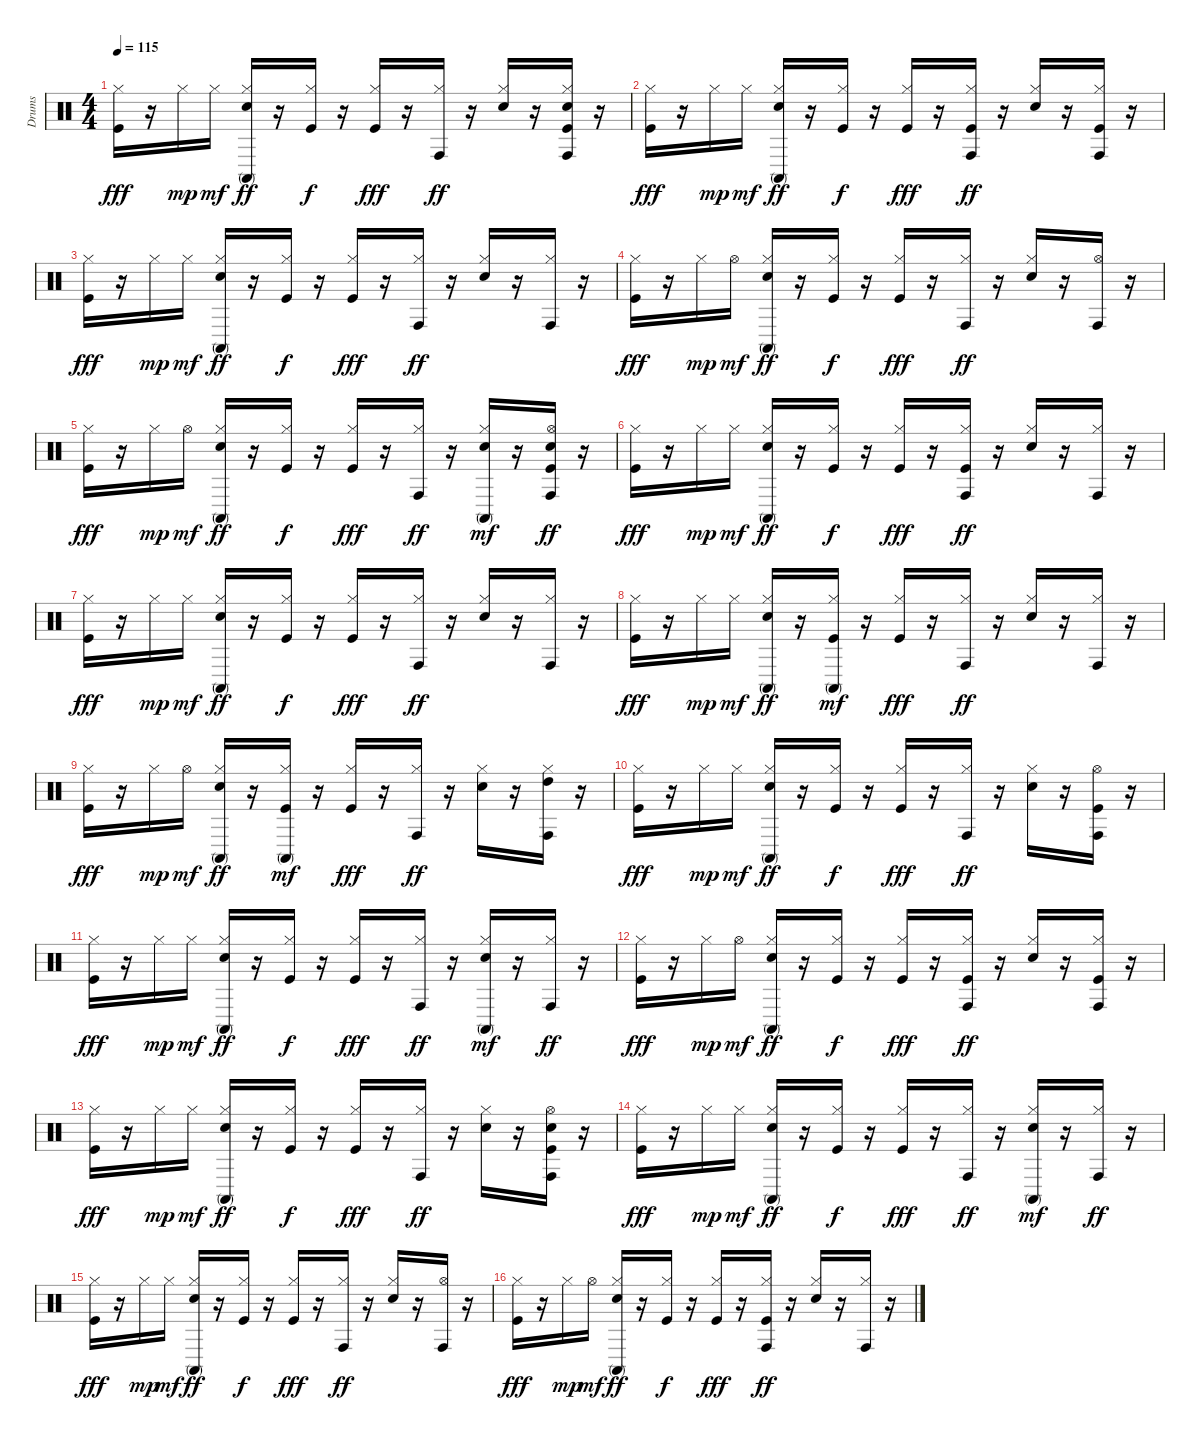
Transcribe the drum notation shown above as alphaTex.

\track ("Drums" "Drums") {instrument percussion}
\staff {score}
\articulation defaults
\ts (4 4)
\tempo 115
\clef neutral
\ks c
("Kick (hit)" "Hi-Hat (closed)").16{dy fff} r.16 "Hi-Hat (closed)".16{dy mp} "Hi-Hat (closed)".16{dy mf} ("Snare (hit) 2" "Hi-Hat (closed)" "Conga high (mute)").16{dy ff} r.16 ("Kick (hit)" "Hi-Hat (closed)").16{dy f} r.16 ("Kick (hit)" "Hi-Hat (closed)").16{dy fff} r.16 ("Hi-Hat (closed)" "Conga high (hit)").16{dy ff} r.16 ("Snare (hit) 2" "Hi-Hat (closed)").16 r.16 ("Kick (hit)" "Snare (hit) 2" "Hi-Hat (closed)" "Conga high (hit)").16 r.16 |
("Kick (hit)" "Hi-Hat (closed)").16{dy fff} r.16 "Hi-Hat (closed)".16{dy mp} "Hi-Hat (closed)".16{dy mf} ("Snare (hit) 2" "Hi-Hat (closed)" "Conga high (mute)").16{dy ff} r.16 ("Kick (hit)" "Hi-Hat (closed)").16{dy f} r.16 ("Kick (hit)" "Hi-Hat (closed)").16{dy fff} r.16 ("Kick (hit)" "Hi-Hat (closed)" "Conga high (hit)").16{dy ff} r.16 ("Snare (hit) 2" "Hi-Hat (closed)").16 r.16 ("Kick (hit)" "Hi-Hat (closed)" "Conga high (hit)").16 r.16 |
("Kick (hit)" "Hi-Hat (closed)").16{dy fff} r.16 "Hi-Hat (closed)".16{dy mp} "Hi-Hat (closed)".16{dy mf} ("Snare (hit) 2" "Hi-Hat (closed)" "Conga high (mute)").16{dy ff} r.16 ("Kick (hit)" "Hi-Hat (closed)").16{dy f} r.16 ("Kick (hit)" "Hi-Hat (closed)").16{dy fff} r.16 ("Hi-Hat (closed)" "Conga high (hit)").16{dy ff} r.16 ("Snare (hit) 2" "Hi-Hat (closed)").16 r.16 ("Hi-Hat (closed)" "Conga high (hit)").16 r.16 |
("Kick (hit)" "Hi-Hat (closed)").16{dy fff} r.16 "Hi-Hat (closed)".16{dy mp} "Hi-Hat (open)".16{dy mf} ("Snare (hit) 2" "Hi-Hat (closed)" "Conga high (mute)").16{dy ff} r.16 ("Kick (hit)" "Hi-Hat (closed)").16{dy f} r.16 ("Kick (hit)" "Hi-Hat (closed)").16{dy fff} r.16 ("Hi-Hat (closed)" "Conga high (hit)").16{dy ff} r.16 ("Snare (hit) 2" "Hi-Hat (closed)").16 r.16 ("Hi-Hat (open)" "Conga high (hit)").16 r.16 |
("Kick (hit)" "Hi-Hat (closed)").16{dy fff} r.16 "Hi-Hat (closed)".16{dy mp} "Hi-Hat (open)".16{dy mf} ("Snare (hit) 2" "Hi-Hat (closed)" "Conga high (mute)").16{dy ff} r.16 ("Kick (hit)" "Hi-Hat (closed)").16{dy f} r.16 ("Kick (hit)" "Hi-Hat (closed)").16{dy fff} r.16 ("Hi-Hat (closed)" "Conga high (hit)").16{dy ff} r.16 ("Snare (hit) 2" "Hi-Hat (closed)" "Conga high (mute)").16{dy mf} r.16 ("Kick (hit)" "Snare (hit) 2" "Hi-Hat (open)" "Conga high (hit)").16{dy ff} r.16 |
("Kick (hit)" "Hi-Hat (closed)").16{dy fff} r.16 "Hi-Hat (closed)".16{dy mp} "Hi-Hat (closed)".16{dy mf} ("Snare (hit) 2" "Hi-Hat (closed)" "Conga high (mute)").16{dy ff} r.16 ("Kick (hit)" "Hi-Hat (closed)").16{dy f} r.16 ("Kick (hit)" "Hi-Hat (closed)").16{dy fff} r.16 ("Kick (hit)" "Hi-Hat (closed)" "Conga high (hit)").16{dy ff} r.16 ("Snare (hit) 2" "Hi-Hat (closed)").16 r.16 ("Hi-Hat (closed)" "Conga high (hit)").16 r.16 |
("Kick (hit)" "Hi-Hat (closed)").16{dy fff} r.16 "Hi-Hat (closed)".16{dy mp} "Hi-Hat (closed)".16{dy mf} ("Snare (hit) 2" "Hi-Hat (closed)" "Conga high (mute)").16{dy ff} r.16 ("Kick (hit)" "Hi-Hat (closed)").16{dy f} r.16 ("Kick (hit)" "Hi-Hat (closed)").16{dy fff} r.16 ("Hi-Hat (closed)" "Conga high (hit)").16{dy ff} r.16 ("Snare (hit) 2" "Hi-Hat (closed)").16 r.16 ("Hi-Hat (closed)" "Conga high (hit)").16 r.16 |
("Kick (hit)" "Hi-Hat (closed)").16{dy fff} r.16 "Hi-Hat (closed)".16{dy mp} "Hi-Hat (closed)".16{dy mf} ("Snare (hit) 2" "Hi-Hat (closed)" "Conga high (mute)").16{dy ff} r.16 ("Kick (hit)" "Hi-Hat (closed)" "Conga high (mute)").16{dy mf} r.16 ("Kick (hit)" "Hi-Hat (closed)").16{dy fff} r.16 ("Hi-Hat (closed)" "Conga high (hit)").16{dy ff} r.16 ("Snare (hit) 2" "Hi-Hat (closed)").16 r.16 ("Hi-Hat (closed)" "Conga high (hit)").16 r.16 |
("Kick (hit)" "Hi-Hat (closed)").16{dy fff} r.16 "Hi-Hat (closed)".16{dy mp} "Hi-Hat (open)".16{dy mf} ("Snare (hit) 2" "Hi-Hat (closed)" "Conga high (mute)").16{dy ff} r.16 ("Kick (hit)" "Hi-Hat (closed)" "Conga high (mute)").16{dy mf} r.16 ("Kick (hit)" "Hi-Hat (closed)").16{dy fff} r.16 ("Hi-Hat (closed)" "Conga high (hit)").16{dy ff} r.16 ("Snare (hit) 2" "Hi-Hat (closed)").16 r.16 ("Hi-Hat (closed)" "High Tom (hit)" "Conga high (hit)").16 r.16 |
("Kick (hit)" "Hi-Hat (closed)").16{dy fff} r.16 "Hi-Hat (closed)".16{dy mp} "Hi-Hat (closed)".16{dy mf} ("Snare (hit) 2" "Hi-Hat (closed)" "Conga high (mute)").16{dy ff} r.16 ("Kick (hit)" "Hi-Hat (closed)").16{dy f} r.16 ("Kick (hit)" "Hi-Hat (closed)").16{dy fff} r.16 ("Hi-Hat (closed)" "Conga high (hit)").16{dy ff} r.16 ("Snare (hit) 2" "Hi-Hat (closed)").16 r.16 ("Kick (hit)" "Hi-Hat (open)" "Conga high (hit)").16 r.16 |
("Kick (hit)" "Hi-Hat (closed)").16{dy fff} r.16 "Hi-Hat (closed)".16{dy mp} "Hi-Hat (closed)".16{dy mf} ("Snare (hit) 2" "Hi-Hat (closed)" "Conga high (mute)").16{dy ff} r.16 ("Kick (hit)" "Hi-Hat (closed)").16{dy f} r.16 ("Kick (hit)" "Hi-Hat (closed)").16{dy fff} r.16 ("Hi-Hat (closed)" "Conga high (hit)").16{dy ff} r.16 ("Snare (hit) 2" "Hi-Hat (closed)" "Conga high (mute)").16{dy mf} r.16 ("Hi-Hat (closed)" "Conga high (hit)").16{dy ff} r.16 |
("Kick (hit)" "Hi-Hat (closed)").16{dy fff} r.16 "Hi-Hat (closed)".16{dy mp} "Hi-Hat (open)".16{dy mf} ("Snare (hit) 2" "Hi-Hat (closed)" "Conga high (mute)").16{dy ff} r.16 ("Kick (hit)" "Hi-Hat (closed)").16{dy f} r.16 ("Kick (hit)" "Hi-Hat (closed)").16{dy fff} r.16 ("Kick (hit)" "Hi-Hat (closed)" "Conga high (hit)").16{dy ff} r.16 ("Snare (hit) 2" "Hi-Hat (closed)").16 r.16 ("Kick (hit)" "Hi-Hat (closed)" "Conga high (hit)").16 r.16 |
("Kick (hit)" "Hi-Hat (closed)").16{dy fff} r.16 "Hi-Hat (closed)".16{dy mp} "Hi-Hat (closed)".16{dy mf} ("Snare (hit) 2" "Hi-Hat (closed)" "Conga high (mute)").16{dy ff} r.16 ("Kick (hit)" "Hi-Hat (closed)").16{dy f} r.16 ("Kick (hit)" "Hi-Hat (closed)").16{dy fff} r.16 ("Hi-Hat (closed)" "Conga high (hit)").16{dy ff} r.16 ("Snare (hit) 2" "Hi-Hat (closed)").16 r.16 ("Kick (hit)" "Snare (hit) 2" "Hi-Hat (open)" "Conga high (hit)").16 r.16 |
("Kick (hit)" "Hi-Hat (closed)").16{dy fff} r.16 "Hi-Hat (closed)".16{dy mp} "Hi-Hat (closed)".16{dy mf} ("Snare (hit) 2" "Hi-Hat (closed)" "Conga high (mute)").16{dy ff} r.16 ("Kick (hit)" "Hi-Hat (closed)").16{dy f} r.16 ("Kick (hit)" "Hi-Hat (closed)").16{dy fff} r.16 ("Hi-Hat (closed)" "Conga high (hit)").16{dy ff} r.16 ("Snare (hit) 2" "Hi-Hat (closed)" "Conga high (mute)").16{dy mf} r.16 ("Hi-Hat (closed)" "Conga high (hit)").16{dy ff} r.16 |
("Kick (hit)" "Hi-Hat (closed)").16{dy fff} r.16 "Hi-Hat (closed)".16{dy mp} "Hi-Hat (closed)".16{dy mf} ("Snare (hit) 2" "Hi-Hat (closed)" "Conga high (mute)").16{dy ff} r.16 ("Kick (hit)" "Hi-Hat (closed)").16{dy f} r.16 ("Kick (hit)" "Hi-Hat (closed)").16{dy fff} r.16 ("Hi-Hat (closed)" "Conga high (hit)").16{dy ff} r.16 ("Snare (hit) 2" "Hi-Hat (closed)").16 r.16 ("Hi-Hat (open)" "Conga high (hit)").16 r.16 |
("Kick (hit)" "Hi-Hat (closed)").16{dy fff} r.16 "Hi-Hat (closed)".16{dy mp} "Hi-Hat (open)".16{dy mf} ("Snare (hit) 2" "Hi-Hat (closed)" "Conga high (mute)").16{dy ff} r.16 ("Kick (hit)" "Hi-Hat (closed)").16{dy f} r.16 ("Kick (hit)" "Hi-Hat (closed)").16{dy fff} r.16 ("Kick (hit)" "Hi-Hat (closed)" "Conga high (hit)").16{dy ff} r.16 ("Snare (hit) 2" "Hi-Hat (closed)").16 r.16 ("Hi-Hat (closed)" "Conga high (hit)").16 r.16
